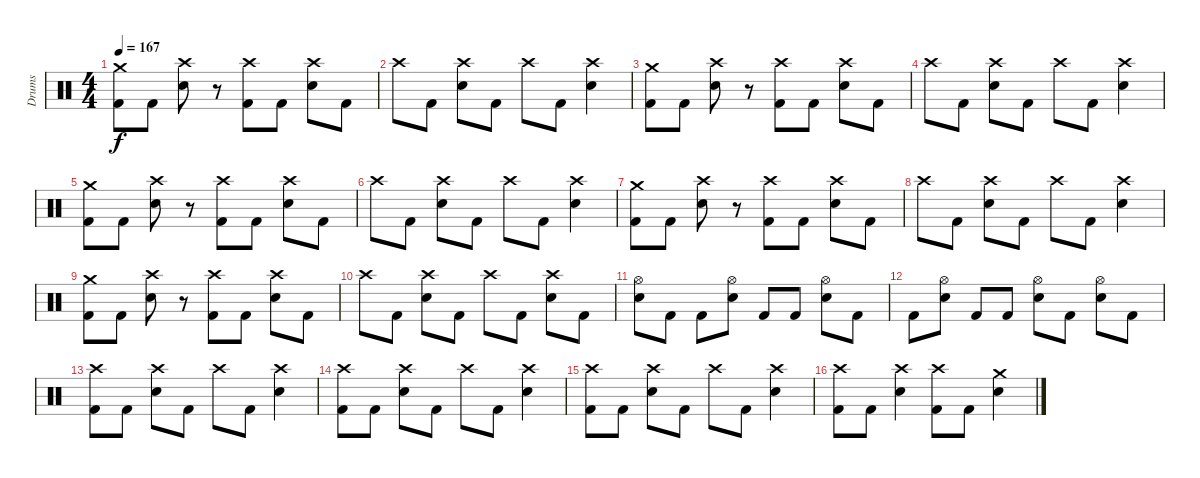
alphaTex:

\track ("Drums" "Drums") {instrument percussion}
\staff {score}
\articulation defaults
\ts (4 4)
\tempo 167
\clef neutral
\ks c
("Crash medium (hit)" "Kick (hit) 2").8{dy f} "Kick (hit) 2".8 ("Crash high (hit)" "Snare (hit) 2").8 r.8 ("Crash high (hit)" "Kick (hit) 2").8 "Kick (hit) 2".8 ("Crash high (hit)" "Snare (hit) 2").8 "Kick (hit) 2".8 |
"Crash high (hit)".8 "Kick (hit) 2".8 ("Crash high (hit)" "Snare (hit) 2").8 "Kick (hit) 2".8 "Crash high (hit)".8 "Kick (hit) 2".8 ("Crash high (hit)" "Snare (hit) 2").4 |
("Crash medium (hit)" "Kick (hit) 2").8 "Kick (hit) 2".8 ("Crash high (hit)" "Snare (hit) 2").8 r.8 ("Crash high (hit)" "Kick (hit) 2").8 "Kick (hit) 2".8 ("Crash high (hit)" "Snare (hit) 2").8 "Kick (hit) 2".8 |
"Crash high (hit)".8 "Kick (hit) 2".8 ("Crash high (hit)" "Snare (hit) 2").8 "Kick (hit) 2".8 "Crash high (hit)".8 "Kick (hit) 2".8 ("Crash high (hit)" "Snare (hit) 2").4 |
("Crash medium (hit)" "Kick (hit) 2").8 "Kick (hit) 2".8 ("Crash high (hit)" "Snare (hit) 2").8 r.8 ("Crash high (hit)" "Kick (hit) 2").8 "Kick (hit) 2".8 ("Crash high (hit)" "Snare (hit) 2").8 "Kick (hit) 2".8 |
"Crash high (hit)".8 "Kick (hit) 2".8 ("Crash high (hit)" "Snare (hit) 2").8 "Kick (hit) 2".8 "Crash high (hit)".8 "Kick (hit) 2".8 ("Crash high (hit)" "Snare (hit) 2").4 |
("Crash medium (hit)" "Kick (hit) 2").8 "Kick (hit) 2".8 ("Crash high (hit)" "Snare (hit) 2").8 r.8 ("Crash high (hit)" "Kick (hit) 2").8 "Kick (hit) 2".8 ("Crash high (hit)" "Snare (hit) 2").8 "Kick (hit) 2".8 |
"Crash high (hit)".8 "Kick (hit) 2".8 ("Crash high (hit)" "Snare (hit) 2").8 "Kick (hit) 2".8 "Crash high (hit)".8 "Kick (hit) 2".8 ("Crash high (hit)" "Snare (hit) 2").4 |
("Crash medium (hit)" "Kick (hit) 2").8 "Kick (hit) 2".8 ("Crash high (hit)" "Snare (hit) 2").8 r.8 ("Crash high (hit)" "Kick (hit) 2").8 "Kick (hit) 2".8 ("Crash high (hit)" "Snare (hit) 2").8 "Kick (hit) 2".8 |
"Crash high (hit)".8 "Kick (hit) 2".8 ("Crash high (hit)" "Snare (hit) 2").8 "Kick (hit) 2".8 "Crash high (hit)".8 "Kick (hit) 2".8 ("Crash high (hit)" "Snare (hit) 2").8 "Kick (hit) 2".8 |
("Hi-Hat (open)" "Snare (hit) 2").8 "Kick (hit) 2".8 "Kick (hit) 2".8 ("Hi-Hat (open)" "Snare (hit) 2").8 "Kick (hit) 2".8 "Kick (hit) 2".8 ("Hi-Hat (open)" "Snare (hit) 2").8 "Kick (hit) 2".8 |
"Kick (hit) 2".8 ("Hi-Hat (open)" "Snare (hit) 2").8 "Kick (hit) 2".8 "Kick (hit) 2".8 ("Hi-Hat (open)" "Snare (hit) 2").8 "Kick (hit) 2".8 ("Hi-Hat (open)" "Snare (hit) 2").8 "Kick (hit) 2".8 |
("Crash high (hit)" "Kick (hit) 2").8 "Kick (hit) 2".8 ("Crash high (hit)" "Snare (hit) 2").8 "Kick (hit) 2".8 "Crash high (hit)".8 "Kick (hit) 2".8 ("Crash high (hit)" "Snare (hit) 2").4 |
("Crash high (hit)" "Kick (hit) 2").8 "Kick (hit) 2".8 ("Crash high (hit)" "Snare (hit) 2").8 "Kick (hit) 2".8 "Crash high (hit)".8 "Kick (hit) 2".8 ("Crash high (hit)" "Snare (hit) 2").4 |
("Crash high (hit)" "Kick (hit) 2").8 "Kick (hit) 2".8 ("Crash high (hit)" "Snare (hit) 2").8 "Kick (hit) 2".8 "Crash high (hit)".8 "Kick (hit) 2".8 ("Crash high (hit)" "Snare (hit) 2").4 |
("Crash high (hit)" "Kick (hit) 2").8 "Kick (hit) 2".8 ("Crash high (hit)" "Snare (hit) 2").4 ("Crash high (hit)" "Kick (hit) 2").8 "Kick (hit) 2".8 ("Crash medium (hit)" "Snare (hit) 2").4
